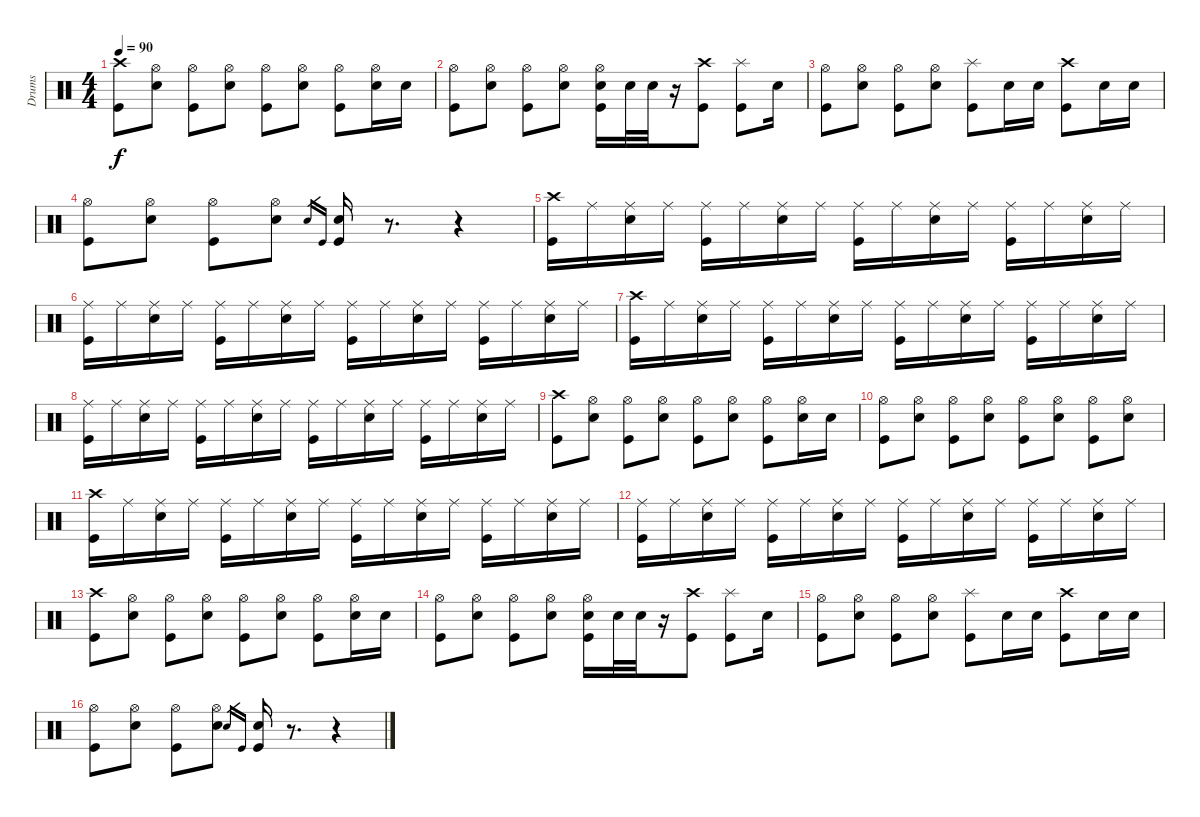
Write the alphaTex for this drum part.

\track ("Drums" "Drums") {instrument percussion}
\staff {score}
\articulation defaults
\ts (4 4)
\tempo 90
\clef neutral
\ks c
("Crash high (hit)" "Kick (hit)").8{dy f} ("Hi-Hat (open)" "Electric Snare (hit)").8 ("Hi-Hat (open)" "Kick (hit)").8 ("Hi-Hat (open)" "Electric Snare (hit)").8 ("Hi-Hat (open)" "Kick (hit)").8 ("Hi-Hat (open)" "Electric Snare (hit)").8 ("Hi-Hat (open)" "Kick (hit)").8 ("Hi-Hat (open)" "Electric Snare (hit)").16 "Electric Snare (hit)".16 |
("Hi-Hat (open)" "Kick (hit)").8 ("Hi-Hat (open)" "Electric Snare (hit)").8 ("Hi-Hat (open)" "Kick (hit)").8 ("Hi-Hat (open)" "Electric Snare (hit)").8 ("Hi-Hat (open)" "Electric Snare (hit)" "Kick (hit)").16 "Electric Snare (hit)".32 "Electric Snare (hit)".32 r.16 ("Crash high (hit)" "Kick (hit)").8 ("Splash (hit)" "Kick (hit)").8 "Electric Snare (hit)".16 |
("Hi-Hat (open)" "Kick (hit)").8 ("Hi-Hat (open)" "Electric Snare (hit)").8 ("Hi-Hat (open)" "Kick (hit)").8 ("Hi-Hat (open)" "Electric Snare (hit)").8 ("Splash (hit)" "Kick (hit)").8 "Electric Snare (hit)".16 "Electric Snare (hit)".16 ("Crash high (hit)" "Kick (hit)").8 "Electric Snare (hit)".16 "Electric Snare (hit)".16 |
("Hi-Hat (open)" "Kick (hit)").8 ("Hi-Hat (open)" "Electric Snare (hit)").8 ("Hi-Hat (open)" "Kick (hit)").8 ("Hi-Hat (open)" "Electric Snare (hit)").8 "Electric Snare (hit)".16{gr} "Kick (hit)".16{gr} ("Electric Snare (hit)" "Kick (hit)").16 r.8{d} r.4 |
("Crash high (hit)" "Kick (hit)").16 "Ride (middle)".16 ("Ride (middle)" "Electric Snare (hit)").16 "Ride (middle)".16 ("Ride (middle)" "Kick (hit)").16 "Ride (middle)".16 ("Ride (middle)" "Electric Snare (hit)").16 "Ride (middle)".16 ("Ride (middle)" "Kick (hit)").16 "Ride (middle)".16 ("Ride (middle)" "Electric Snare (hit)").16 "Ride (middle)".16 ("Ride (middle)" "Kick (hit)").16 "Ride (middle)".16 ("Ride (middle)" "Electric Snare (hit)").16 "Ride (middle)".16 |
("Ride (middle)" "Kick (hit)").16 "Ride (middle)".16 ("Ride (middle)" "Electric Snare (hit)").16 "Ride (middle)".16 ("Ride (middle)" "Kick (hit)").16 "Ride (middle)".16 ("Ride (middle)" "Electric Snare (hit)").16 "Ride (middle)".16 ("Ride (middle)" "Kick (hit)").16 "Ride (middle)".16 ("Ride (middle)" "Electric Snare (hit)").16 "Ride (middle)".16 ("Ride (middle)" "Kick (hit)").16 "Ride (middle)".16 ("Ride (middle)" "Electric Snare (hit)").16 "Ride (middle)".16 |
("Crash high (hit)" "Kick (hit)").16 "Ride (middle)".16 ("Ride (middle)" "Electric Snare (hit)").16 "Ride (middle)".16 ("Ride (middle)" "Kick (hit)").16 "Ride (middle)".16 ("Ride (middle)" "Electric Snare (hit)").16 "Ride (middle)".16 ("Ride (middle)" "Kick (hit)").16 "Ride (middle)".16 ("Ride (middle)" "Electric Snare (hit)").16 "Ride (middle)".16 ("Ride (middle)" "Kick (hit)").16 "Ride (middle)".16 ("Ride (middle)" "Electric Snare (hit)").16 "Ride (middle)".16 |
("Ride (middle)" "Kick (hit)").16 "Ride (middle)".16 ("Ride (middle)" "Electric Snare (hit)").16 "Ride (middle)".16 ("Ride (middle)" "Kick (hit)").16 "Ride (middle)".16 ("Ride (middle)" "Electric Snare (hit)").16 "Ride (middle)".16 ("Ride (middle)" "Kick (hit)").16 "Ride (middle)".16 ("Ride (middle)" "Electric Snare (hit)").16 "Ride (middle)".16 ("Ride (middle)" "Kick (hit)").16 "Ride (middle)".16 ("Ride (middle)" "Electric Snare (hit)").16 "Ride (middle)".16 |
("Crash high (hit)" "Kick (hit)").8 ("Hi-Hat (open)" "Electric Snare (hit)").8 ("Hi-Hat (open)" "Kick (hit)").8 ("Hi-Hat (open)" "Electric Snare (hit)").8 ("Hi-Hat (open)" "Kick (hit)").8 ("Hi-Hat (open)" "Electric Snare (hit)").8 ("Hi-Hat (open)" "Kick (hit)").8 ("Hi-Hat (open)" "Electric Snare (hit)").16 "Electric Snare (hit)".16 |
("Hi-Hat (open)" "Kick (hit)").8 ("Hi-Hat (open)" "Electric Snare (hit)").8 ("Hi-Hat (open)" "Kick (hit)").8 ("Hi-Hat (open)" "Electric Snare (hit)").8 ("Hi-Hat (open)" "Kick (hit)").8 ("Hi-Hat (open)" "Electric Snare (hit)").8 ("Hi-Hat (open)" "Kick (hit)").8 ("Hi-Hat (open)" "Electric Snare (hit)").8 |
("Crash high (hit)" "Kick (hit)").16 "Ride (middle)".16 ("Ride (middle)" "Electric Snare (hit)").16 "Ride (middle)".16 ("Ride (middle)" "Kick (hit)").16 "Ride (middle)".16 ("Ride (middle)" "Electric Snare (hit)").16 "Ride (middle)".16 ("Ride (middle)" "Kick (hit)").16 "Ride (middle)".16 ("Ride (middle)" "Electric Snare (hit)").16 "Ride (middle)".16 ("Ride (middle)" "Kick (hit)").16 "Ride (middle)".16 ("Ride (middle)" "Electric Snare (hit)").16 "Ride (middle)".16 |
("Ride (middle)" "Kick (hit)").16 "Ride (middle)".16 ("Ride (middle)" "Electric Snare (hit)").16 "Ride (middle)".16 ("Ride (middle)" "Kick (hit)").16 "Ride (middle)".16 ("Ride (middle)" "Electric Snare (hit)").16 "Ride (middle)".16 ("Ride (middle)" "Kick (hit)").16 "Ride (middle)".16 ("Ride (middle)" "Electric Snare (hit)").16 "Ride (middle)".16 ("Ride (middle)" "Kick (hit)").16 "Ride (middle)".16 ("Ride (middle)" "Electric Snare (hit)").16 "Ride (middle)".16 |
("Crash high (hit)" "Kick (hit)").8 ("Hi-Hat (open)" "Electric Snare (hit)").8 ("Hi-Hat (open)" "Kick (hit)").8 ("Hi-Hat (open)" "Electric Snare (hit)").8 ("Hi-Hat (open)" "Kick (hit)").8 ("Hi-Hat (open)" "Electric Snare (hit)").8 ("Hi-Hat (open)" "Kick (hit)").8 ("Hi-Hat (open)" "Electric Snare (hit)").16 "Electric Snare (hit)".16 |
("Hi-Hat (open)" "Kick (hit)").8 ("Hi-Hat (open)" "Electric Snare (hit)").8 ("Hi-Hat (open)" "Kick (hit)").8 ("Hi-Hat (open)" "Electric Snare (hit)").8 ("Hi-Hat (open)" "Electric Snare (hit)" "Kick (hit)").16 "Electric Snare (hit)".32 "Electric Snare (hit)".32 r.16 ("Crash high (hit)" "Kick (hit)").8 ("Splash (hit)" "Kick (hit)").8 "Electric Snare (hit)".16 |
("Hi-Hat (open)" "Kick (hit)").8 ("Hi-Hat (open)" "Electric Snare (hit)").8 ("Hi-Hat (open)" "Kick (hit)").8 ("Hi-Hat (open)" "Electric Snare (hit)").8 ("Splash (hit)" "Kick (hit)").8 "Electric Snare (hit)".16 "Electric Snare (hit)".16 ("Crash high (hit)" "Kick (hit)").8 "Electric Snare (hit)".16 "Electric Snare (hit)".16 |
("Hi-Hat (open)" "Kick (hit)").8 ("Hi-Hat (open)" "Electric Snare (hit)").8 ("Hi-Hat (open)" "Kick (hit)").8 ("Hi-Hat (open)" "Electric Snare (hit)").8 "Electric Snare (hit)".16{gr} "Kick (hit)".16{gr} ("Electric Snare (hit)" "Kick (hit)").16 r.8{d} r.4
